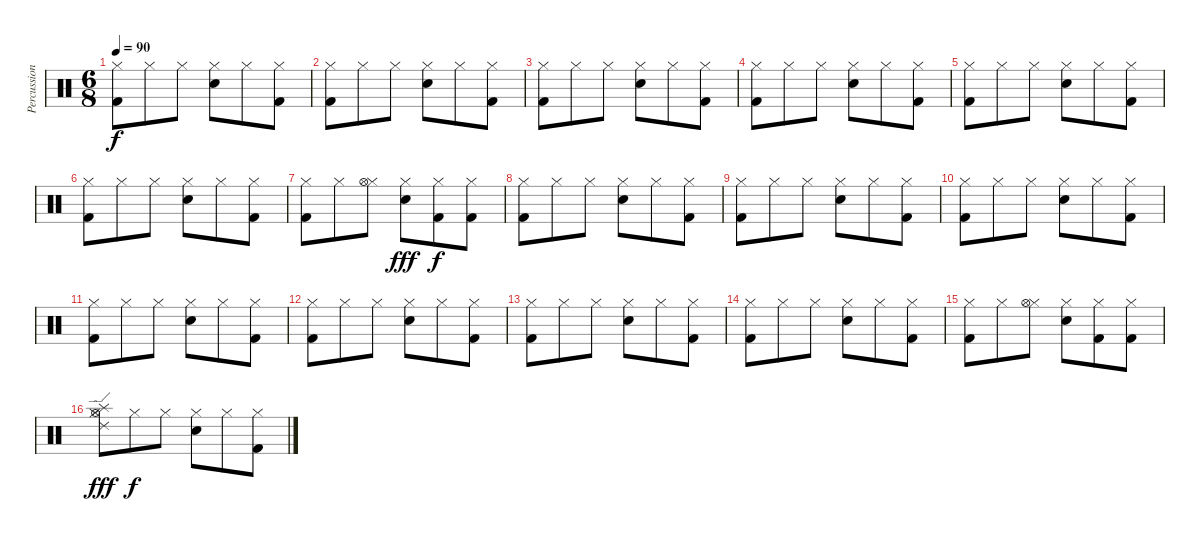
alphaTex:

\track ("Percussion" "Percussion") {instrument percussion}
\staff {score}
\articulation defaults
\ts (6 8)
\tempo 90
\clef neutral
\ks c
("Hi-Hat (closed)" "Kick (hit) 2").8{dy f} "Hi-Hat (closed)".8 "Hi-Hat (closed)".8 ("Hi-Hat (closed)" "Snare (hit) 2").8 "Hi-Hat (closed)".8 ("Hi-Hat (closed)" "Kick (hit) 2").8 |
("Hi-Hat (closed)" "Kick (hit) 2").8 "Hi-Hat (closed)".8 "Hi-Hat (closed)".8 ("Hi-Hat (closed)" "Snare (hit) 2").8 "Hi-Hat (closed)".8 ("Hi-Hat (closed)" "Kick (hit) 2").8 |
("Hi-Hat (closed)" "Kick (hit) 2").8 "Hi-Hat (closed)".8 "Hi-Hat (closed)".8 ("Hi-Hat (closed)" "Snare (hit) 2").8 "Hi-Hat (closed)".8 ("Hi-Hat (closed)" "Kick (hit) 2").8 |
("Hi-Hat (closed)" "Kick (hit) 2").8 "Hi-Hat (closed)".8 "Hi-Hat (closed)".8 ("Hi-Hat (closed)" "Snare (hit) 2").8 "Hi-Hat (closed)".8 ("Hi-Hat (closed)" "Kick (hit) 2").8 |
("Hi-Hat (closed)" "Kick (hit) 2").8 "Hi-Hat (closed)".8 "Hi-Hat (closed)".8 ("Hi-Hat (closed)" "Snare (hit) 2").8 "Hi-Hat (closed)".8 ("Hi-Hat (closed)" "Kick (hit) 2").8 |
("Hi-Hat (closed)" "Kick (hit) 2").8 "Hi-Hat (closed)".8 "Hi-Hat (closed)".8 ("Hi-Hat (closed)" "Snare (hit) 2").8 "Hi-Hat (closed)".8 ("Hi-Hat (closed)" "Kick (hit) 2").8 |
("Hi-Hat (closed)" "Kick (hit) 2").8 "Hi-Hat (closed)".8 ("Hi-Hat (closed)" "Hi-Hat (open)").8 ("Hi-Hat (closed)" "Snare (hit) 2").8{dy fff} ("Hi-Hat (closed)" "Kick (hit) 2").8{dy f} ("Hi-Hat (closed)" "Kick (hit) 2").8 |
("Hi-Hat (closed)" "Kick (hit) 2").8 "Hi-Hat (closed)".8 "Hi-Hat (closed)".8 ("Hi-Hat (closed)" "Snare (hit) 2").8 "Hi-Hat (closed)".8 ("Hi-Hat (closed)" "Kick (hit) 2").8 |
("Hi-Hat (closed)" "Kick (hit) 2").8 "Hi-Hat (closed)".8 "Hi-Hat (closed)".8 ("Hi-Hat (closed)" "Snare (hit) 2").8 "Hi-Hat (closed)".8 ("Hi-Hat (closed)" "Kick (hit) 2").8 |
("Hi-Hat (closed)" "Kick (hit) 2").8 "Hi-Hat (closed)".8 "Hi-Hat (closed)".8 ("Hi-Hat (closed)" "Snare (hit) 2").8 "Hi-Hat (closed)".8 ("Hi-Hat (closed)" "Kick (hit) 2").8 |
("Hi-Hat (closed)" "Kick (hit) 2").8 "Hi-Hat (closed)".8 "Hi-Hat (closed)".8 ("Hi-Hat (closed)" "Snare (hit) 2").8 "Hi-Hat (closed)".8 ("Hi-Hat (closed)" "Kick (hit) 2").8 |
("Hi-Hat (closed)" "Kick (hit) 2").8 "Hi-Hat (closed)".8 "Hi-Hat (closed)".8 ("Hi-Hat (closed)" "Snare (hit) 2").8 "Hi-Hat (closed)".8 ("Hi-Hat (closed)" "Kick (hit) 2").8 |
("Hi-Hat (closed)" "Kick (hit) 2").8 "Hi-Hat (closed)".8 "Hi-Hat (closed)".8 ("Hi-Hat (closed)" "Snare (hit) 2").8 "Hi-Hat (closed)".8 ("Hi-Hat (closed)" "Kick (hit) 2").8 |
("Hi-Hat (closed)" "Kick (hit) 2").8 "Hi-Hat (closed)".8 "Hi-Hat (closed)".8 ("Hi-Hat (closed)" "Snare (hit) 2").8 "Hi-Hat (closed)".8 ("Hi-Hat (closed)" "Kick (hit) 2").8 |
("Hi-Hat (closed)" "Kick (hit) 2").8 "Hi-Hat (closed)".8 ("Hi-Hat (closed)" "Hi-Hat (open)").8 ("Hi-Hat (closed)" "Snare (hit) 2").8 ("Hi-Hat (closed)" "Kick (hit) 2").8 ("Hi-Hat (closed)" "Kick (hit) 2").8 |
("Hi-Hat (closed)" "Hi-Hat (open)" "Splash (hit)" "Ride (edge) 2").8{dy fff} "Hi-Hat (closed)".8{dy f} "Hi-Hat (closed)".8 ("Hi-Hat (closed)" "Snare (hit) 2").8 "Hi-Hat (closed)".8 ("Hi-Hat (closed)" "Kick (hit) 2").8
